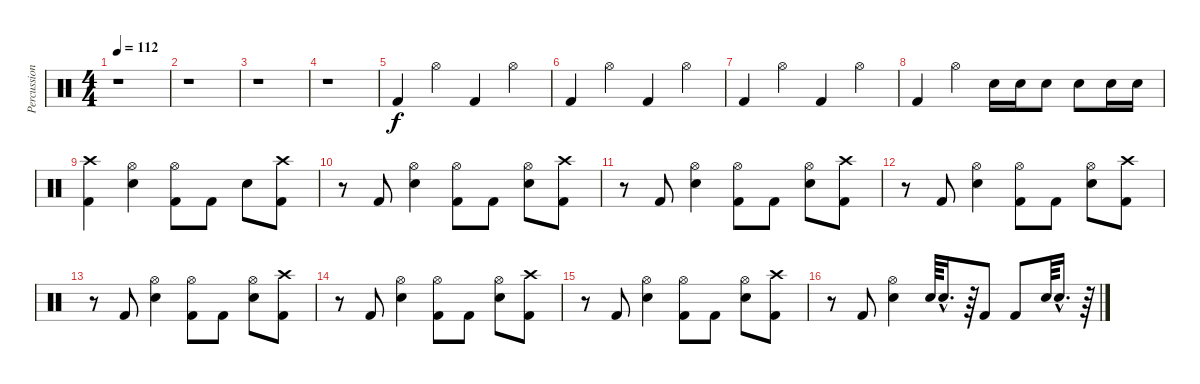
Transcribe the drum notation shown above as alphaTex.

\track ("Percussion" "Percussion") {instrument percussion}
\staff {score}
\articulation defaults
\ts (4 4)
\tempo 112
\clef neutral
\ks c
r.1{dy f} |
r.1 |
r.1 |
r.1 |
"Kick (hit) 2".4 "Hi-Hat (open)".4 "Kick (hit) 2".4 "Hi-Hat (open)".4 |
"Kick (hit) 2".4 "Hi-Hat (open)".4 "Kick (hit) 2".4 "Hi-Hat (open)".4 |
"Kick (hit) 2".4 "Hi-Hat (open)".4 "Kick (hit) 2".4 "Hi-Hat (open)".4 |
"Kick (hit) 2".4 "Hi-Hat (open)".4 "Snare (hit) 2".16 "Snare (hit) 2".16 "Snare (hit) 2".8 "Snare (hit) 2".8 "Snare (hit) 2".16 "Snare (hit) 2".16 |
("Crash high (hit)" "Kick (hit) 2").4 ("Hi-Hat (open)" "Snare (hit) 2").4 ("Hi-Hat (open)" "Kick (hit) 2").8 "Kick (hit) 2".8 "Snare (hit) 2".8 ("Crash high (hit)" "Kick (hit) 2").8 |
r.8 "Kick (hit) 2".8 ("Hi-Hat (open)" "Snare (hit) 2").4 ("Hi-Hat (open)" "Kick (hit) 2").8 "Kick (hit) 2".8 ("Hi-Hat (open)" "Snare (hit) 2").8 ("Crash high (hit)" "Kick (hit) 2").8 |
r.8 "Kick (hit) 2".8 ("Hi-Hat (open)" "Snare (hit) 2").4 ("Hi-Hat (open)" "Kick (hit) 2").8 "Kick (hit) 2".8 ("Hi-Hat (open)" "Snare (hit) 2").8 ("Crash high (hit)" "Kick (hit) 2").8 |
r.8 "Kick (hit) 2".8 ("Hi-Hat (open)" "Snare (hit) 2").4 ("Hi-Hat (open)" "Kick (hit) 2").8 "Kick (hit) 2".8 ("Hi-Hat (open)" "Snare (hit) 2").8 ("Crash high (hit)" "Kick (hit) 2").8 |
r.8 "Kick (hit) 2".8 ("Hi-Hat (open)" "Snare (hit) 2").4 ("Hi-Hat (open)" "Kick (hit) 2").8 "Kick (hit) 2".8 ("Hi-Hat (open)" "Snare (hit) 2").8 ("Crash high (hit)" "Kick (hit) 2").8 |
r.8 "Kick (hit) 2".8 ("Hi-Hat (open)" "Snare (hit) 2").4 ("Hi-Hat (open)" "Kick (hit) 2").8 "Kick (hit) 2".8 ("Hi-Hat (open)" "Snare (hit) 2").8 ("Crash high (hit)" "Kick (hit) 2").8 |
r.8 "Kick (hit) 2".8 ("Hi-Hat (open)" "Snare (hit) 2").4 ("Hi-Hat (open)" "Kick (hit) 2").8 "Kick (hit) 2".8 ("Hi-Hat (open)" "Snare (hit) 2").8 ("Crash high (hit)" "Kick (hit) 2").8 |
r.8 "Kick (hit) 2".8 ("Hi-Hat (open)" "Snare (hit) 2").4 "Snare (hit) 2".64 "Snare (hit) 2"{hac}.16{d} r.64 "Kick (hit) 2".8 "Kick (hit) 2".8 "Snare (hit) 2".64 "Snare (hit) 2"{hac}.16{d} r.64
